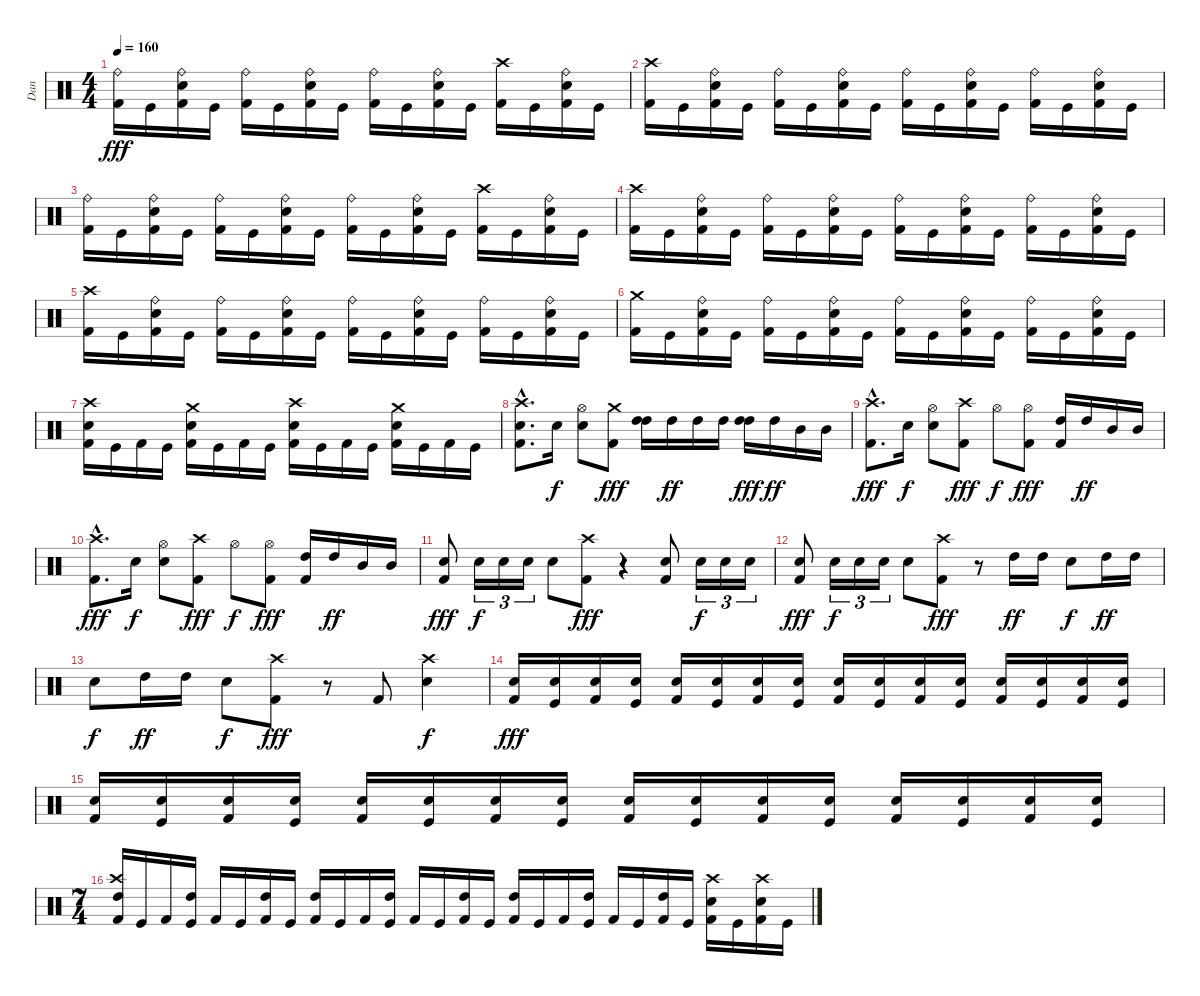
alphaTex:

\track ("Dan " "Dan ") {instrument percussion}
\staff {score}
\articulation defaults
\ts (4 4)
\tempo 160
\clef neutral
\ks c
("Ride (bell)" "Kick (hit) 2").16{dy fff} "Kick (hit)".16 ("Ride (bell)" "Electric Snare (hit)" "Kick (hit) 2").16 "Kick (hit)".16 ("Ride (bell)" "Kick (hit) 2").16 "Kick (hit)".16 ("Ride (bell)" "Electric Snare (hit)" "Kick (hit) 2").16 "Kick (hit)".16 ("Ride (bell)" "Kick (hit) 2").16 "Kick (hit)".16 ("Ride (bell)" "Electric Snare (hit)" "Kick (hit) 2").16 "Kick (hit)".16 ("Crash high (hit)" "Kick (hit) 2").16 "Kick (hit)".16 ("Ride (bell)" "Electric Snare (hit)" "Kick (hit) 2").16 "Kick (hit)".16 |
("Crash high (hit)" "Kick (hit) 2").16 "Kick (hit)".16 ("Ride (bell)" "Electric Snare (hit)" "Kick (hit) 2").16 "Kick (hit)".16 ("Ride (bell)" "Kick (hit) 2").16 "Kick (hit)".16 ("Ride (bell)" "Electric Snare (hit)" "Kick (hit) 2").16 "Kick (hit)".16 ("Ride (bell)" "Kick (hit) 2").16 "Kick (hit)".16 ("Ride (bell)" "Electric Snare (hit)" "Kick (hit) 2").16 "Kick (hit)".16 ("Ride (bell)" "Kick (hit) 2").16 "Kick (hit)".16 ("Ride (bell)" "Electric Snare (hit)" "Kick (hit) 2").16 "Kick (hit)".16 |
("Ride (bell)" "Kick (hit) 2").16 "Kick (hit)".16 ("Ride (bell)" "Electric Snare (hit)" "Kick (hit) 2").16 "Kick (hit)".16 ("Ride (bell)" "Kick (hit) 2").16 "Kick (hit)".16 ("Ride (bell)" "Electric Snare (hit)" "Kick (hit) 2").16 "Kick (hit)".16 ("Ride (bell)" "Kick (hit) 2").16 "Kick (hit)".16 ("Ride (bell)" "Electric Snare (hit)" "Kick (hit) 2").16 "Kick (hit)".16 ("Crash high (hit)" "Kick (hit) 2").16 "Kick (hit)".16 ("Ride (bell)" "Electric Snare (hit)" "Kick (hit) 2").16 "Kick (hit)".16 |
("Crash high (hit)" "Kick (hit) 2").16 "Kick (hit)".16 ("Ride (bell)" "Electric Snare (hit)" "Kick (hit) 2").16 "Kick (hit)".16 ("Ride (bell)" "Kick (hit) 2").16 "Kick (hit)".16 ("Ride (bell)" "Electric Snare (hit)" "Kick (hit) 2").16 "Kick (hit)".16 ("Ride (bell)" "Kick (hit) 2").16 "Kick (hit)".16 ("Ride (bell)" "Electric Snare (hit)" "Kick (hit) 2").16 "Kick (hit)".16 ("Ride (bell)" "Kick (hit) 2").16 "Kick (hit)".16 ("Ride (bell)" "Electric Snare (hit)" "Kick (hit) 2").16 "Kick (hit)".16 |
("Crash high (hit)" "Kick (hit) 2").16 "Kick (hit)".16 ("Ride (bell)" "Electric Snare (hit)" "Kick (hit) 2").16 "Kick (hit)".16 ("Ride (bell)" "Kick (hit) 2").16 "Kick (hit)".16 ("Ride (bell)" "Electric Snare (hit)" "Kick (hit) 2").16 "Kick (hit)".16 ("Ride (bell)" "Kick (hit) 2").16 "Kick (hit)".16 ("Ride (bell)" "Electric Snare (hit)" "Kick (hit) 2").16 "Kick (hit)".16 ("Ride (bell)" "Kick (hit) 2").16 "Kick (hit)".16 ("Ride (bell)" "Electric Snare (hit)" "Kick (hit) 2").16 "Kick (hit)".16 |
("Crash medium (hit)" "Kick (hit) 2").16 "Kick (hit)".16 ("Ride (bell)" "Electric Snare (hit)" "Kick (hit) 2").16 "Kick (hit)".16 ("Ride (bell)" "Kick (hit) 2").16 "Kick (hit)".16 ("Ride (bell)" "Electric Snare (hit)" "Kick (hit) 2").16 "Kick (hit)".16 ("Ride (bell)" "Kick (hit) 2").16 "Kick (hit)".16 ("Ride (bell)" "Electric Snare (hit)" "Kick (hit) 2").16 "Kick (hit)".16 ("Ride (bell)" "Kick (hit) 2").16 "Kick (hit)".16 ("Ride (bell)" "Electric Snare (hit)" "Kick (hit) 2").16 "Kick (hit)".16 |
("Crash high (hit)" "Electric Snare (hit)" "Kick (hit) 2").16 "Kick (hit)".16 "Kick (hit) 2".16 "Kick (hit)".16 ("Crash medium (hit)" "Electric Snare (hit)" "Kick (hit) 2").16 "Kick (hit)".16 "Kick (hit) 2".16 "Kick (hit)".16 ("Crash high (hit)" "Electric Snare (hit)" "Kick (hit) 2").16 "Kick (hit)".16 "Kick (hit) 2".16 "Kick (hit)".16 ("Crash medium (hit)" "Electric Snare (hit)" "Kick (hit) 2").16 "Kick (hit)".16 "Kick (hit) 2".16 "Kick (hit)".16 |
("Crash high (hit)"{hac} "Electric Snare (hit)"{hac} "Kick (hit) 2"{hac}).8{d} "Electric Snare (hit)".16{dy f} ("Hi-Hat (open)" "Electric Snare (hit)").8 ("Crash medium (hit)" "Kick (hit) 2").8{dy fff} ("High Tom (hit)" "High Tom (hit)").16 "High Tom (hit)".16{dy ff} "High Tom (hit)".16 "High Tom (hit)".16 ("High Tom (hit)" "High Tom (hit)").16{dy fff} "High Tom (hit)".16{dy ff} "Mid Tom (hit)".16 "Mid Tom (hit)".16 |
("Crash high (hit)"{hac} "Kick (hit) 2"{hac}).8{d dy fff} "Electric Snare (hit)".16{dy f} ("Hi-Hat (open)" "Electric Snare (hit)").8 ("Crash high (hit)" "Kick (hit) 2").8{dy fff} "Hi-Hat (open)".8{dy f} ("Hi-Hat (open)" "Kick (hit) 2").8{dy fff} ("High Tom (hit)" "Kick (hit) 2").16 "High Tom (hit)".16{dy ff} "Mid Tom (hit)".16 "Mid Tom (hit)".16 |
("Crash high (hit)"{hac} "Kick (hit) 2"{hac}).8{d dy fff} "Electric Snare (hit)".16{dy f} ("Hi-Hat (open)" "Electric Snare (hit)").8 ("Crash high (hit)" "Kick (hit) 2").8{dy fff} "Hi-Hat (open)".8{dy f} ("Hi-Hat (open)" "Kick (hit) 2").8{dy fff} ("High Tom (hit)" "Kick (hit) 2").16 "High Tom (hit)".16{dy ff} "Mid Tom (hit)".16 "Mid Tom (hit)".16 |
("Electric Snare (hit)" "Kick (hit) 2").8{dy fff} "Electric Snare (hit)".16{tu (3 2) dy f} "Electric Snare (hit)".16{tu (3 2)} "Electric Snare (hit)".16{tu (3 2)} "Electric Snare (hit)".8 ("Crash high (hit)" "Kick (hit) 2").8{dy fff} r.4 ("Electric Snare (hit)" "Kick (hit) 2").8 "Electric Snare (hit)".16{tu (3 2) dy f} "Electric Snare (hit)".16{tu (3 2)} "Electric Snare (hit)".16{tu (3 2)} |
("Electric Snare (hit)" "Kick (hit) 2").8{dy fff} "Electric Snare (hit)".16{tu (3 2) dy f} "Electric Snare (hit)".16{tu (3 2)} "Electric Snare (hit)".16{tu (3 2)} "Electric Snare (hit)".8 ("Crash high (hit)" "Kick (hit) 2").8{dy fff} r.8 "High Tom (hit)".16{dy ff} "High Tom (hit)".16 "Electric Snare (hit)".8{dy f} "High Tom (hit)".16{dy ff} "High Tom (hit)".16 |
"Electric Snare (hit)".8{dy f} "High Tom (hit)".16{dy ff} "High Tom (hit)".16 "Electric Snare (hit)".8{dy f} ("Crash high (hit)" "Kick (hit) 2").8{dy fff} r.8 "Kick (hit) 2".8 ("Crash high (hit)" "Electric Snare (hit)").4{dy f} |
("Electric Snare (hit)" "Kick (hit) 2").16{dy fff} ("Electric Snare (hit)" "Kick (hit)").16 ("Electric Snare (hit)" "Kick (hit) 2").16 ("Electric Snare (hit)" "Kick (hit)").16 ("Electric Snare (hit)" "Kick (hit) 2").16 ("Electric Snare (hit)" "Kick (hit)").16 ("Electric Snare (hit)" "Kick (hit) 2").16 ("Electric Snare (hit)" "Kick (hit)").16 ("Electric Snare (hit)" "Kick (hit) 2").16 ("Electric Snare (hit)" "Kick (hit)").16 ("Electric Snare (hit)" "Kick (hit) 2").16 ("Electric Snare (hit)" "Kick (hit)").16 ("Electric Snare (hit)" "Kick (hit) 2").16 ("Electric Snare (hit)" "Kick (hit)").16 ("Electric Snare (hit)" "Kick (hit) 2").16 ("Electric Snare (hit)" "Kick (hit)").16 |
("Electric Snare (hit)" "Kick (hit) 2").16 ("Electric Snare (hit)" "Kick (hit)").16 ("Electric Snare (hit)" "Kick (hit) 2").16 ("Electric Snare (hit)" "Kick (hit)").16 ("Electric Snare (hit)" "Kick (hit) 2").16 ("Electric Snare (hit)" "Kick (hit)").16 ("Electric Snare (hit)" "Kick (hit) 2").16 ("Electric Snare (hit)" "Kick (hit)").16 ("Electric Snare (hit)" "Kick (hit) 2").16 ("Electric Snare (hit)" "Kick (hit)").16 ("Electric Snare (hit)" "Kick (hit) 2").16 ("Electric Snare (hit)" "Kick (hit)").16 ("Electric Snare (hit)" "Kick (hit) 2").16 ("Electric Snare (hit)" "Kick (hit)").16 ("Electric Snare (hit)" "Kick (hit) 2").16 ("Electric Snare (hit)" "Kick (hit)").16 |
\ts (7 4)
("Crash high (hit)" "High Tom (hit)" "Kick (hit) 2").16 "Kick (hit)".16 "Kick (hit) 2".16 ("High Tom (hit)" "Kick (hit)").16 "Kick (hit) 2".16 "Kick (hit)".16 ("High Tom (hit)" "Kick (hit) 2").16 "Kick (hit)".16 ("High Tom (hit)" "Kick (hit) 2").16 "Kick (hit)".16 "Kick (hit) 2".16 ("High Tom (hit)" "Kick (hit)").16 "Kick (hit) 2".16 "Kick (hit)".16 ("High Tom (hit)" "Kick (hit) 2").16 "Kick (hit)".16 ("High Tom (hit)" "Kick (hit) 2").16 "Kick (hit)".16 "Kick (hit) 2".16 ("High Tom (hit)" "Kick (hit)").16 "Kick (hit) 2".16 "Kick (hit)".16 ("High Tom (hit)" "Kick (hit) 2").16 "Kick (hit)".16 ("Crash high (hit)" "Electric Snare (hit)" "Kick (hit) 2").16 "Kick (hit)".16 ("Crash high (hit)" "Electric Snare (hit)" "Kick (hit) 2").16 "Kick (hit)".16
